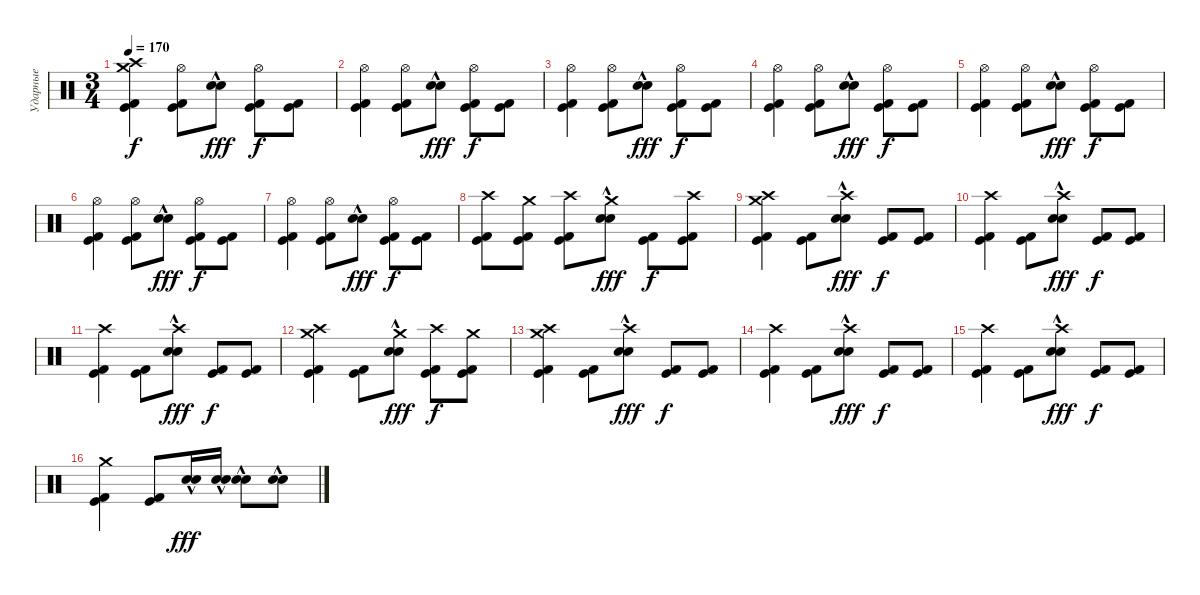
\track ("Ударные" "Ударные") {instrument percussion}
\staff {score}
\articulation defaults
\ts (3 4)
\tempo 170
\clef neutral
\ks c
("Crash high (hit)" "Kick (hit)" "Kick (hit) 2" "Crash medium (hit)").4{dy f} ("Hi-Hat (open)" "Kick (hit)" "Kick (hit) 2").8 ("Snare (hit) 2"{hac} "Electric Snare (hit)"{hac}).8{dy fff} ("Hi-Hat (open)" "Kick (hit)" "Kick (hit) 2").8{dy f} ("Kick (hit)" "Kick (hit) 2").8 |
("Hi-Hat (open)" "Kick (hit)" "Kick (hit) 2").4 ("Hi-Hat (open)" "Kick (hit)" "Kick (hit) 2").8 ("Snare (hit) 2"{hac} "Electric Snare (hit)"{hac}).8{dy fff} ("Hi-Hat (open)" "Kick (hit)" "Kick (hit) 2").8{dy f} ("Kick (hit)" "Kick (hit) 2").8 |
("Hi-Hat (open)" "Kick (hit)" "Kick (hit) 2").4 ("Hi-Hat (open)" "Kick (hit)" "Kick (hit) 2").8 ("Snare (hit) 2"{hac} "Electric Snare (hit)"{hac}).8{dy fff} ("Hi-Hat (open)" "Kick (hit)" "Kick (hit) 2").8{dy f} ("Kick (hit)" "Kick (hit) 2").8 |
("Hi-Hat (open)" "Kick (hit)" "Kick (hit) 2").4 ("Hi-Hat (open)" "Kick (hit)" "Kick (hit) 2").8 ("Snare (hit) 2"{hac} "Electric Snare (hit)"{hac}).8{dy fff} ("Hi-Hat (open)" "Kick (hit)" "Kick (hit) 2").8{dy f} ("Kick (hit)" "Kick (hit) 2").8 |
("Hi-Hat (open)" "Kick (hit)" "Kick (hit) 2").4 ("Hi-Hat (open)" "Kick (hit)" "Kick (hit) 2").8 ("Snare (hit) 2"{hac} "Electric Snare (hit)"{hac}).8{dy fff} ("Hi-Hat (open)" "Kick (hit)" "Kick (hit) 2").8{dy f} ("Kick (hit)" "Kick (hit) 2").8 |
("Hi-Hat (open)" "Kick (hit)" "Kick (hit) 2").4 ("Hi-Hat (open)" "Kick (hit)" "Kick (hit) 2").8 ("Snare (hit) 2"{hac} "Electric Snare (hit)"{hac}).8{dy fff} ("Hi-Hat (open)" "Kick (hit)" "Kick (hit) 2").8{dy f} ("Kick (hit)" "Kick (hit) 2").8 |
("Hi-Hat (open)" "Kick (hit)" "Kick (hit) 2").4 ("Hi-Hat (open)" "Kick (hit)" "Kick (hit) 2").8 ("Snare (hit) 2"{hac} "Electric Snare (hit)"{hac}).8{dy fff} ("Hi-Hat (open)" "Kick (hit)" "Kick (hit) 2").8{dy f} ("Kick (hit)" "Kick (hit) 2").8 |
("Crash high (hit)" "Kick (hit)" "Kick (hit) 2").8 ("Crash medium (hit)" "Kick (hit)" "Kick (hit) 2").8 ("Crash high (hit)" "Kick (hit)" "Kick (hit) 2").8 ("Crash medium (hit)" "Snare (hit) 2"{hac} "Electric Snare (hit)"{hac}).8{dy fff} ("Kick (hit)" "Kick (hit) 2").8{dy f} ("Crash high (hit)" "Kick (hit)" "Kick (hit) 2").8 |
("Crash high (hit)" "Kick (hit)" "Kick (hit) 2" "Crash medium (hit)").4 ("Kick (hit)" "Kick (hit) 2").8 ("Crash high (hit)" "Snare (hit) 2"{hac} "Electric Snare (hit)"{hac}).8{dy fff} ("Kick (hit)" "Kick (hit) 2").8{dy f} ("Kick (hit)" "Kick (hit) 2").8 |
("Crash high (hit)" "Kick (hit)" "Kick (hit) 2").4 ("Kick (hit)" "Kick (hit) 2").8 ("Crash high (hit)" "Snare (hit) 2"{hac} "Electric Snare (hit)"{hac}).8{dy fff} ("Kick (hit)" "Kick (hit) 2").8{dy f} ("Kick (hit)" "Kick (hit) 2").8 |
("Crash high (hit)" "Kick (hit)" "Kick (hit) 2").4 ("Kick (hit)" "Kick (hit) 2").8 ("Crash high (hit)" "Snare (hit) 2"{hac} "Electric Snare (hit)"{hac}).8{dy fff} ("Kick (hit)" "Kick (hit) 2").8{dy f} ("Kick (hit)" "Kick (hit) 2").8 |
("Crash high (hit)" "Kick (hit)" "Kick (hit) 2" "Crash medium (hit)").4 ("Kick (hit)" "Kick (hit) 2").8 ("Crash medium (hit)" "Snare (hit) 2"{hac} "Electric Snare (hit)"{hac}).8{dy fff} ("Crash high (hit)" "Kick (hit)" "Kick (hit) 2").8{dy f} ("Crash medium (hit)" "Kick (hit)" "Kick (hit) 2").8 |
("Crash high (hit)" "Kick (hit)" "Kick (hit) 2" "Crash medium (hit)").4 ("Kick (hit)" "Kick (hit) 2").8 ("Crash high (hit)" "Snare (hit) 2"{hac} "Electric Snare (hit)"{hac}).8{dy fff} ("Kick (hit)" "Kick (hit) 2").8{dy f} ("Kick (hit)" "Kick (hit) 2").8 |
("Crash high (hit)" "Kick (hit)" "Kick (hit) 2").4 ("Kick (hit)" "Kick (hit) 2").8 ("Crash high (hit)" "Snare (hit) 2"{hac} "Electric Snare (hit)"{hac}).8{dy fff} ("Kick (hit)" "Kick (hit) 2").8{dy f} ("Kick (hit)" "Kick (hit) 2").8 |
("Crash high (hit)" "Kick (hit)" "Kick (hit) 2").4 ("Kick (hit)" "Kick (hit) 2").8 ("Crash high (hit)" "Snare (hit) 2"{hac} "Electric Snare (hit)"{hac}).8{dy fff} ("Kick (hit)" "Kick (hit) 2").8{dy f} ("Kick (hit)" "Kick (hit) 2").8 |
("Crash medium (hit)" "Kick (hit)" "Kick (hit) 2").4 ("Kick (hit)" "Kick (hit) 2").8 ("Snare (hit) 2"{hac} "Electric Snare (hit)"{hac}).16{dy fff} ("Snare (hit) 2"{hac} "Electric Snare (hit)"{hac}).16 ("Snare (hit) 2"{hac} "Electric Snare (hit)"{hac}).8 ("Snare (hit) 2"{hac} "Electric Snare (hit)"{hac}).8
